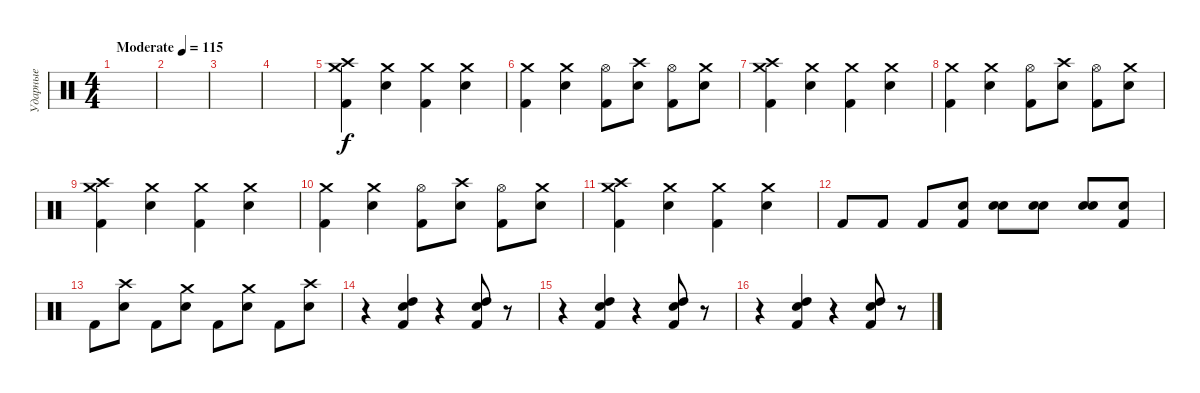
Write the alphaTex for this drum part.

\track ("Ударные" "Ударные") {instrument percussion}
\staff {score}
\articulation defaults
\ts (4 4)
\tempo (115 "Moderate")
\clef neutral
\ks c
|
|
|
|
("Crash medium (hit)" "Crash high (hit)" "Kick (hit) 2").4 ("Snare (hit) 2" "Crash medium (hit)").4 ("Crash medium (hit)" "Kick (hit) 2").4 ("Snare (hit) 2" "Crash medium (hit)").4 |
("Crash medium (hit)" "Kick (hit) 2").4 ("Snare (hit) 2" "Crash medium (hit)").4 ("Hi-Hat (open)" "Kick (hit) 2").8 ("Crash high (hit)" "Snare (hit) 2").8 ("Hi-Hat (open)" "Kick (hit) 2").8 ("Crash medium (hit)" "Snare (hit) 2").8 |
("Crash medium (hit)" "Crash high (hit)" "Kick (hit) 2").4 ("Snare (hit) 2" "Crash medium (hit)").4 ("Crash medium (hit)" "Kick (hit) 2").4 ("Snare (hit) 2" "Crash medium (hit)").4 |
("Crash medium (hit)" "Kick (hit) 2").4 ("Snare (hit) 2" "Crash medium (hit)").4 ("Hi-Hat (open)" "Kick (hit) 2").8 ("Crash high (hit)" "Snare (hit) 2").8 ("Hi-Hat (open)" "Kick (hit) 2").8 ("Crash medium (hit)" "Snare (hit) 2").8 |
("Crash medium (hit)" "Crash high (hit)" "Kick (hit) 2").4 ("Snare (hit) 2" "Crash medium (hit)").4 ("Crash medium (hit)" "Kick (hit) 2").4 ("Snare (hit) 2" "Crash medium (hit)").4 |
("Crash medium (hit)" "Kick (hit) 2").4 ("Snare (hit) 2" "Crash medium (hit)").4 ("Hi-Hat (open)" "Kick (hit) 2").8 ("Crash high (hit)" "Snare (hit) 2").8 ("Hi-Hat (open)" "Kick (hit) 2").8 ("Crash medium (hit)" "Snare (hit) 2").8 |
("Crash medium (hit)" "Crash high (hit)" "Kick (hit) 2").4 ("Snare (hit) 2" "Crash medium (hit)").4 ("Crash medium (hit)" "Kick (hit) 2").4 ("Snare (hit) 2" "Crash medium (hit)").4 |
"Kick (hit) 2".8 "Kick (hit) 2".8 "Kick (hit) 2".8 ("Snare (hit) 2" "Kick (hit) 2").8 ("Snare (hit) 2" "Snare (hit) 2").8 ("Snare (hit) 2" "Snare (hit) 2").8 ("Snare (hit) 2" "Snare (hit) 2").8 ("Snare (hit) 2" "Kick (hit) 2").8 |
"Kick (hit) 2".8 ("Crash high (hit)" "Snare (hit) 2").8 "Kick (hit) 2".8 ("Crash medium (hit)" "Snare (hit) 2").8 "Kick (hit) 2".8 ("Crash medium (hit)" "Snare (hit) 2").8 "Kick (hit) 2".8 ("Crash high (hit)" "Snare (hit) 2").8 |
r.4 ("High Tom (hit)" "Snare (hit) 2" "Kick (hit) 2").4 r.4 ("High Tom (hit)" "Snare (hit) 2" "Kick (hit) 2").8 r.8 |
r.4 ("High Tom (hit)" "Snare (hit) 2" "Kick (hit) 2").4 r.4 ("High Tom (hit)" "Snare (hit) 2" "Kick (hit) 2").8 r.8 |
r.4 ("High Tom (hit)" "Snare (hit) 2" "Kick (hit) 2").4 r.4 ("High Tom (hit)" "Snare (hit) 2" "Kick (hit) 2").8 r.8
